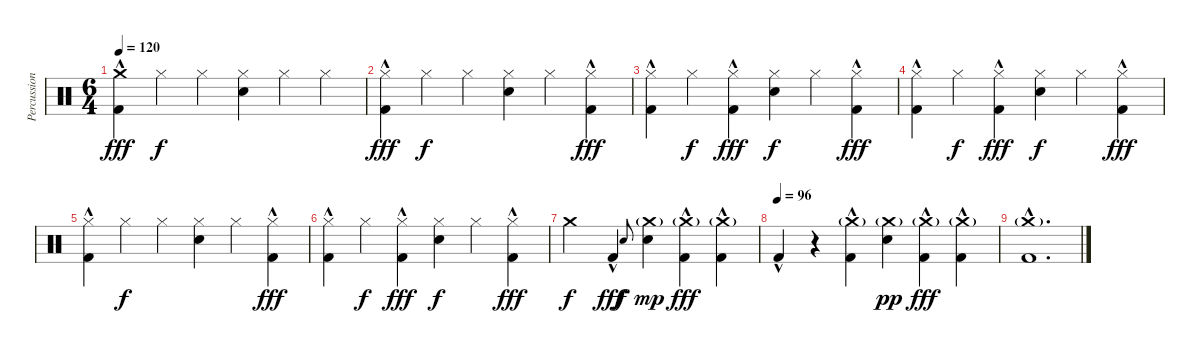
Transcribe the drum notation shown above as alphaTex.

\track ("Percussion" "Percussion") {instrument percussion}
\staff {score}
\articulation defaults
\ts (6 4)
\tempo 120
\clef neutral
\ks c
("Crash medium (hit)" "Kick (hit) 2"{hac}).4{dy fff} "Hi-Hat (closed)".4{dy f} "Hi-Hat (closed)".4 ("Hi-Hat (closed)" "Snare (hit) 2").4 "Hi-Hat (closed)".4 "Hi-Hat (closed)".4 |
("Hi-Hat (closed)" "Kick (hit) 2"{hac}).4{dy fff} "Hi-Hat (closed)".4{dy f} "Hi-Hat (closed)".4 ("Hi-Hat (closed)" "Snare (hit) 2").4 "Hi-Hat (closed)".4 ("Hi-Hat (closed)" "Kick (hit) 2"{hac}).4{dy fff} |
("Hi-Hat (closed)" "Kick (hit) 2"{hac}).4 "Hi-Hat (closed)".4{dy f} ("Hi-Hat (closed)" "Kick (hit) 2"{hac}).4{dy fff} ("Hi-Hat (closed)" "Snare (hit) 2").4{dy f} "Hi-Hat (closed)".4 ("Hi-Hat (closed)" "Kick (hit) 2"{hac}).4{dy fff} |
("Hi-Hat (closed)" "Kick (hit) 2"{hac}).4 "Hi-Hat (closed)".4{dy f} ("Hi-Hat (closed)" "Kick (hit) 2"{hac}).4{dy fff} ("Hi-Hat (closed)" "Snare (hit) 2").4{dy f} "Hi-Hat (closed)".4 ("Hi-Hat (closed)" "Kick (hit) 2"{hac}).4{dy fff} |
("Hi-Hat (closed)" "Kick (hit) 2"{hac}).4 "Hi-Hat (closed)".4{dy f} "Hi-Hat (closed)".4 ("Hi-Hat (closed)" "Snare (hit) 2").4 "Hi-Hat (closed)".4 ("Hi-Hat (closed)" "Kick (hit) 2"{hac}).4{dy fff} |
("Hi-Hat (closed)" "Kick (hit) 2"{hac}).4 "Hi-Hat (closed)".4{dy f} ("Hi-Hat (closed)" "Kick (hit) 2"{hac}).4{dy fff} ("Hi-Hat (closed)" "Snare (hit) 2").4{dy f} "Hi-Hat (closed)".4 ("Hi-Hat (closed)" "Kick (hit) 2"{hac}).4{dy fff} |
"Crash medium (hit)".2{dy f} "Kick (hit) 2"{hac}.4{dy fff} "Snare (hit) 2".8{gr onbeat dy f} ("Crash medium (hit)"{g} "Snare (hit) 2").4{dy mp} ("Crash medium (hit)"{g} "Kick (hit) 2"{hac}).4{dy fff} ("Crash medium (hit)"{g} "Kick (hit) 2"{hac}).4 |
\tempo (96)
"Kick (hit) 2"{hac}.4 r.4 ("Crash medium (hit)"{g} "Kick (hit) 2"{hac}).4 ("Crash medium (hit)"{g} "Snare (hit) 2").4{dy pp} ("Crash medium (hit)"{g} "Kick (hit) 2"{hac}).4{dy fff} ("Crash medium (hit)"{g} "Kick (hit) 2"{hac}).4 |
("Crash medium (hit)"{g} "Kick (hit) 2"{hac}).1{d}
